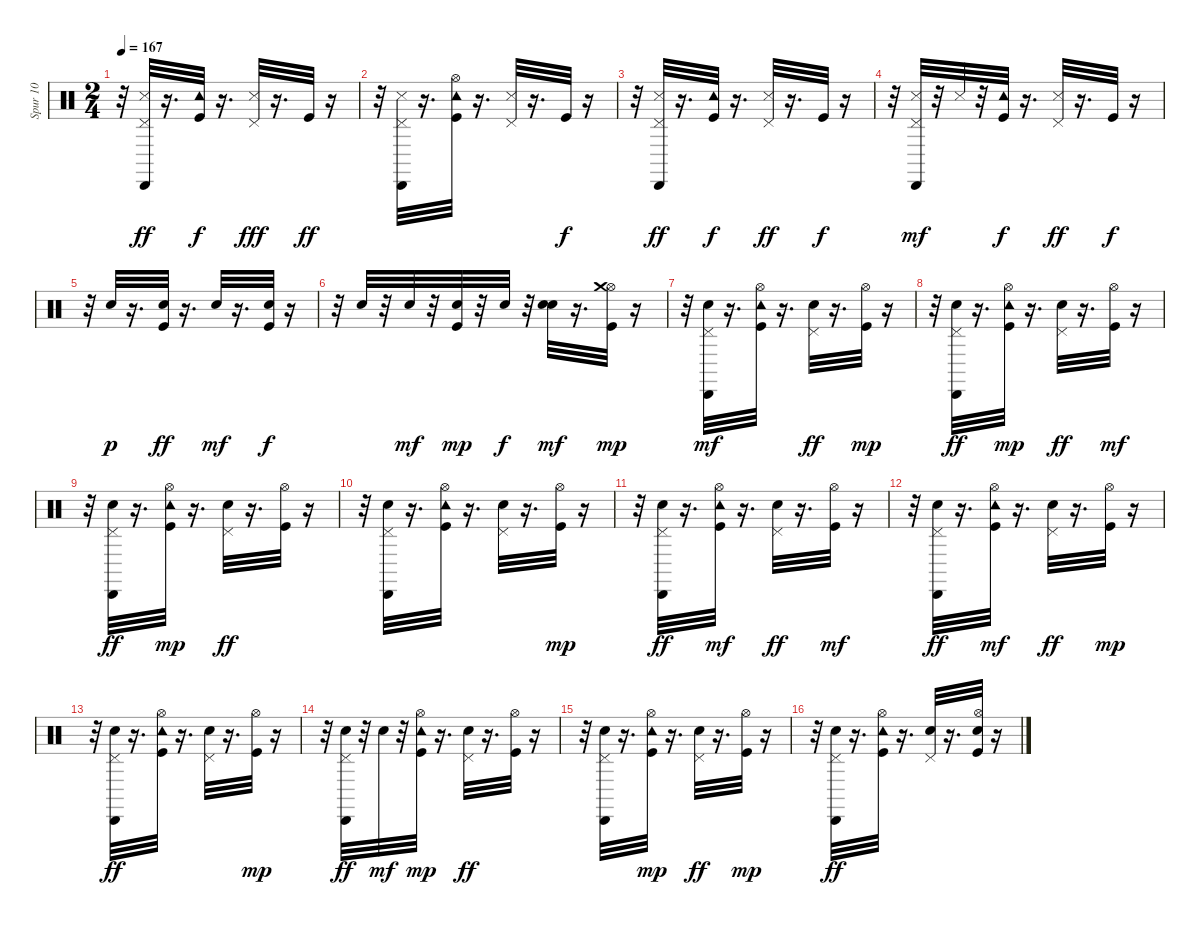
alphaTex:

\track ("Spur 10" "Spur 10") {instrument percussion}
\staff {score}
\articulation defaults
\ts (2 4)
\tempo 167
\clef neutral
\ks c
r.32{dy f} ("Pedal Hi-Hat (hit)" "Cabasa (hit)" "Snare (side stick) 3").32{dy ff} r.16{d} ("Kick (hit)" "Tambourine (hit)").32{dy f} r.16{d} ("Pedal Hi-Hat (hit)" "Snare (side stick) 3").32{dy fff} r.16{d} "Kick (hit)".32{dy ff} r.16 |
r.32 ("Snare (side stick) 3" "Cabasa (hit)" "Pedal Hi-Hat (hit)").32 r.16{d} ("Hi-Hat (open)" "Tambourine (hit)" "Kick (hit)").32 r.16{d} ("Pedal Hi-Hat (hit)" "Snare (side stick) 3").32 r.16{d} "Kick (hit)".32{dy f} r.16 |
r.32 ("Cabasa (hit)" "Pedal Hi-Hat (hit)" "Snare (side stick) 3").32{dy ff} r.16{d} ("Kick (hit)" "Tambourine (hit)").32{dy f} r.16{d} ("Snare (side stick) 3" "Pedal Hi-Hat (hit)").32{dy ff} r.16{d} "Kick (hit)".32{dy f} r.16 |
r.32 ("Cabasa (hit)" "Pedal Hi-Hat (hit)" "Snare (side stick) 3").32{dy mf} r.32 "Snare (side stick) 3".32 r.32 ("Kick (hit)" "Tambourine (hit)").32{dy f} r.16{d} ("Pedal Hi-Hat (hit)" "Snare (side stick) 3").32{dy ff} r.16{d} "Kick (hit)".32{dy f} r.16 |
r.32 "Snare (hit) 2".32{dy p} r.16{d} ("Snare (hit) 2" "Kick (hit)").32{dy ff} r.16{d} "Snare (hit) 2".32{dy mf} r.16{d} ("Snare (hit) 2" "Kick (hit)").32{dy f} r.16 |
r.32 "Snare (hit) 2".32 r.32 "Snare (hit) 2".32{dy mf} r.32 ("Kick (hit)" "Snare (hit) 2").32{dy mp} r.32 "Snare (hit) 2".32{dy f} r.32 ("Electric Snare (hit)" "Snare (hit) 2").32{dy mf} r.16{d} ("Kick (hit)" "Hi-Hat (open)" "Crash medium (hit)").32{dy mp} r.16 |
r.32 ("Snare (hit) 2" "Pedal Hi-Hat (hit)" "Cabasa (hit)").32{dy mf} r.16{d} ("Tambourine (hit)" "Kick (hit)" "Hi-Hat (open)").32 r.16{d} ("Pedal Hi-Hat (hit)" "Snare (hit) 2").32{dy ff} r.16{d} ("Hi-Hat (open)" "Kick (hit)").32{dy mp} r.16 |
r.32 ("Pedal Hi-Hat (hit)" "Snare (hit) 2" "Cabasa (hit)").32{dy ff} r.16{d} ("Tambourine (hit)" "Kick (hit)" "Hi-Hat (open)").32{dy mp} r.16{d} ("Pedal Hi-Hat (hit)" "Snare (hit) 2").32{dy ff} r.16{d} ("Kick (hit)" "Hi-Hat (open)").32{dy mf} r.16 |
r.32 ("Cabasa (hit)" "Pedal Hi-Hat (hit)" "Snare (hit) 2").32{dy ff} r.16{d} ("Hi-Hat (open)" "Tambourine (hit)" "Kick (hit)").32{dy mp} r.16{d} ("Pedal Hi-Hat (hit)" "Snare (hit) 2").32{dy ff} r.16{d} ("Hi-Hat (open)" "Kick (hit)").32 r.16 |
r.32 ("Cabasa (hit)" "Pedal Hi-Hat (hit)" "Snare (hit) 2").32 r.16{d} ("Hi-Hat (open)" "Tambourine (hit)" "Kick (hit)").32 r.16{d} ("Pedal Hi-Hat (hit)" "Snare (hit) 2").32 r.16{d} ("Kick (hit)" "Hi-Hat (open)").32{dy mp} r.16 |
r.32 ("Snare (hit) 2" "Cabasa (hit)" "Pedal Hi-Hat (hit)").32{dy ff} r.16{d} ("Hi-Hat (open)" "Kick (hit)" "Tambourine (hit)").32{dy mf} r.16{d} ("Pedal Hi-Hat (hit)" "Snare (hit) 2").32{dy ff} r.16{d} ("Hi-Hat (open)" "Kick (hit)").32{dy mf} r.16 |
r.32 ("Pedal Hi-Hat (hit)" "Snare (hit) 2" "Cabasa (hit)").32{dy ff} r.16{d} ("Tambourine (hit)" "Kick (hit)" "Hi-Hat (open)").32{dy mf} r.16{d} ("Pedal Hi-Hat (hit)" "Snare (hit) 2").32{dy ff} r.16{d} ("Hi-Hat (open)" "Kick (hit)").32{dy mp} r.16 |
r.32 ("Pedal Hi-Hat (hit)" "Snare (hit) 2" "Cabasa (hit)").32{dy ff} r.16{d} ("Hi-Hat (open)" "Kick (hit)" "Tambourine (hit)").32 r.16{d} ("Pedal Hi-Hat (hit)" "Snare (hit) 2").32 r.16{d} ("Kick (hit)" "Hi-Hat (open)").32{dy mp} r.16 |
r.32 ("Pedal Hi-Hat (hit)" "Snare (hit) 2" "Cabasa (hit)").32{dy ff} r.32 "Snare (hit) 2".32{dy mf} r.32 ("Hi-Hat (open)" "Tambourine (hit)" "Kick (hit)").32{dy mp} r.16{d} ("Pedal Hi-Hat (hit)" "Snare (hit) 2").32{dy ff} r.16{d} ("Hi-Hat (open)" "Kick (hit)").32 r.16 |
r.32 ("Cabasa (hit)" "Snare (hit) 2" "Pedal Hi-Hat (hit)").32 r.16{d} ("Kick (hit)" "Tambourine (hit)" "Hi-Hat (open)").32{dy mp} r.16{d} ("Snare (hit) 2" "Pedal Hi-Hat (hit)").32{dy ff} r.16{d} ("Kick (hit)" "Hi-Hat (open)").32{dy mp} r.16 |
r.32 ("Pedal Hi-Hat (hit)" "Cabasa (hit)" "Snare (hit) 2").32{dy ff} r.16{d} ("Hi-Hat (open)" "Tambourine (hit)" "Kick (hit)").32 r.16{d} ("Snare (hit) 2" "Pedal Hi-Hat (hit)").32 r.16{d} ("Hi-Hat (open)" "Snare (hit) 2" "Kick (hit)").32 r.16
